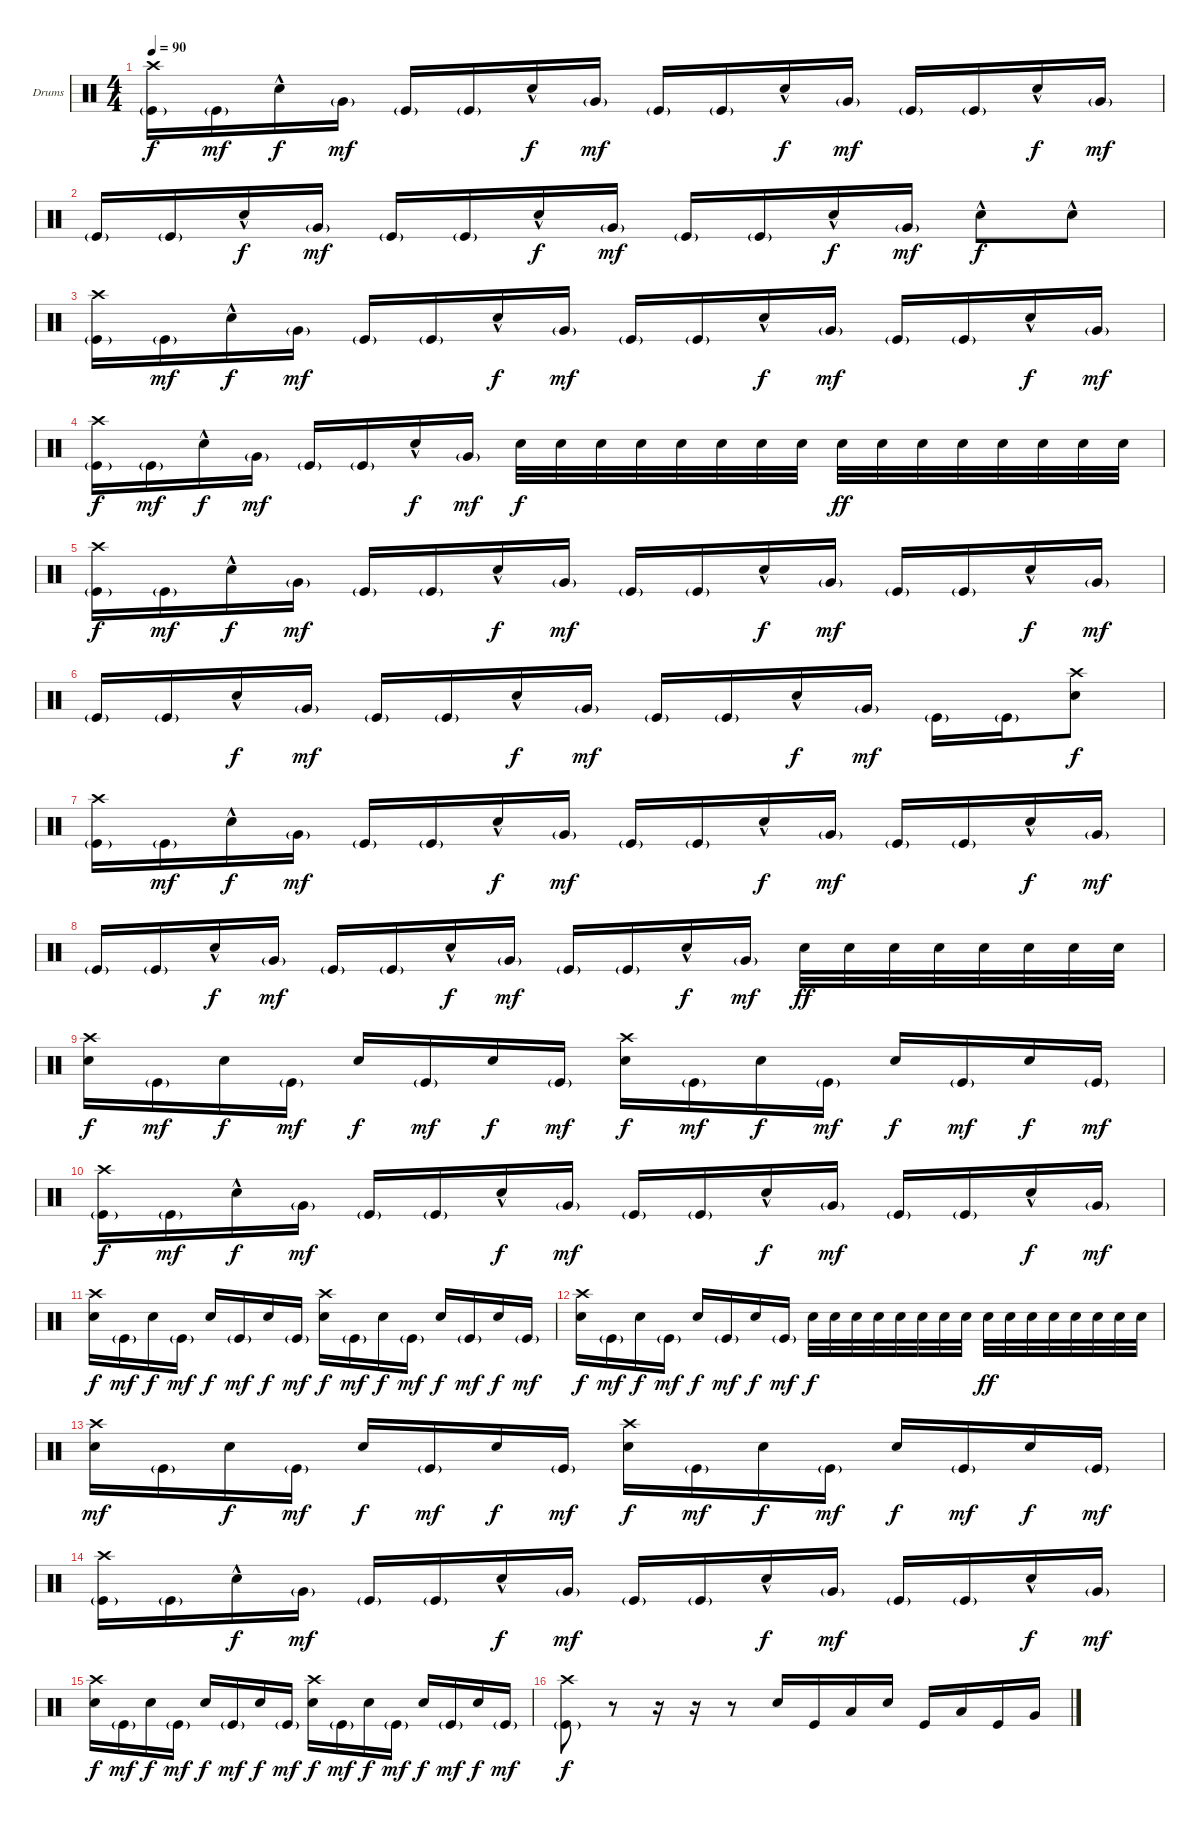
\defaultSystemsLayout 4
\bracketExtendMode groupsimilarinstruments
\firstSystemTrackNameOrientation horizontal
\otherSystemsTrackNameOrientation horizontal
\track ("Drums" "Drums") {instrument percussion}
\staff {score}
\articulation defaults
\ts (4 4)
\tempo 90
\clef neutral
\ks c
("Crash high (hit)" "Kick (hit)"{g}).16{dy f} "Kick (hit)"{g}.16{dy mf} "Snare (hit) 2"{hac}.16{dy f} "Very Low Tom (hit)"{g}.16{dy mf} "Kick (hit)"{g}.16 "Kick (hit)"{g}.16 "Snare (hit) 2"{hac}.16{dy f} "Very Low Tom (hit)"{g}.16{dy mf} "Kick (hit)"{g}.16 "Kick (hit)"{g}.16 "Snare (hit) 2"{hac}.16{dy f} "Very Low Tom (hit)"{g}.16{dy mf} "Kick (hit)"{g}.16 "Kick (hit)"{g}.16 "Snare (hit) 2"{hac}.16{dy f} "Very Low Tom (hit)"{g}.16{dy mf} |
"Kick (hit)"{g}.16 "Kick (hit)"{g}.16 "Snare (hit) 2"{hac}.16{dy f} "Very Low Tom (hit)"{g}.16{dy mf} "Kick (hit)"{g}.16 "Kick (hit)"{g}.16 "Snare (hit) 2"{hac}.16{dy f} "Very Low Tom (hit)"{g}.16{dy mf} "Kick (hit)"{g}.16 "Kick (hit)"{g}.16 "Snare (hit) 2"{hac}.16{dy f} "Very Low Tom (hit)"{g}.16{dy mf} "Snare (hit) 2"{hac}.8{dy f} "Snare (hit) 2"{hac}.8 |
("Crash high (hit)" "Kick (hit)"{g}).16 "Kick (hit)"{g}.16{dy mf} "Snare (hit) 2"{hac}.16{dy f} "Very Low Tom (hit)"{g}.16{dy mf} "Kick (hit)"{g}.16 "Kick (hit)"{g}.16 "Snare (hit) 2"{hac}.16{dy f} "Very Low Tom (hit)"{g}.16{dy mf} "Kick (hit)"{g}.16 "Kick (hit)"{g}.16 "Snare (hit) 2"{hac}.16{dy f} "Very Low Tom (hit)"{g}.16{dy mf} "Kick (hit)"{g}.16 "Kick (hit)"{g}.16 "Snare (hit) 2"{hac}.16{dy f} "Very Low Tom (hit)"{g}.16{dy mf} |
("Crash high (hit)" "Kick (hit)"{g}).16{dy f} "Kick (hit)"{g}.16{dy mf} "Snare (hit) 2"{hac}.16{dy f} "Very Low Tom (hit)"{g}.16{dy mf} "Kick (hit)"{g}.16 "Kick (hit)"{g}.16 "Snare (hit) 2"{hac}.16{dy f} "Very Low Tom (hit)"{g}.16{dy mf} "Snare (hit) 2".32{dy f} "Snare (hit) 2".32 "Snare (hit) 2".32 "Snare (hit) 2".32 "Snare (hit) 2".32 "Snare (hit) 2".32 "Snare (hit) 2".32 "Snare (hit) 2".32 "Snare (hit) 2".32{dy ff} "Snare (hit) 2".32 "Snare (hit) 2".32 "Snare (hit) 2".32 "Snare (hit) 2".32 "Snare (hit) 2".32 "Snare (hit) 2".32 "Snare (hit) 2".32 |
("Crash high (hit)" "Kick (hit)"{g}).16{dy f} "Kick (hit)"{g}.16{dy mf} "Snare (hit) 2"{hac}.16{dy f} "Very Low Tom (hit)"{g}.16{dy mf} "Kick (hit)"{g}.16 "Kick (hit)"{g}.16 "Snare (hit) 2"{hac}.16{dy f} "Very Low Tom (hit)"{g}.16{dy mf} "Kick (hit)"{g}.16 "Kick (hit)"{g}.16 "Snare (hit) 2"{hac}.16{dy f} "Very Low Tom (hit)"{g}.16{dy mf} "Kick (hit)"{g}.16 "Kick (hit)"{g}.16 "Snare (hit) 2"{hac}.16{dy f} "Very Low Tom (hit)"{g}.16{dy mf} |
"Kick (hit)"{g}.16 "Kick (hit)"{g}.16 "Snare (hit) 2"{hac}.16{dy f} "Very Low Tom (hit)"{g}.16{dy mf} "Kick (hit)"{g}.16 "Kick (hit)"{g}.16 "Snare (hit) 2"{hac}.16{dy f} "Very Low Tom (hit)"{g}.16{dy mf} "Kick (hit)"{g}.16 "Kick (hit)"{g}.16 "Snare (hit) 2"{hac}.16{dy f} "Very Low Tom (hit)"{g}.16{dy mf} "Kick (hit)"{g}.16 "Kick (hit)"{g}.16 ("Crash high (hit)" "Snare (hit) 2").8{dy f} |
("Crash high (hit)" "Kick (hit)"{g}).16 "Kick (hit)"{g}.16{dy mf} "Snare (hit) 2"{hac}.16{dy f} "Very Low Tom (hit)"{g}.16{dy mf} "Kick (hit)"{g}.16 "Kick (hit)"{g}.16 "Snare (hit) 2"{hac}.16{dy f} "Very Low Tom (hit)"{g}.16{dy mf} "Kick (hit)"{g}.16 "Kick (hit)"{g}.16 "Snare (hit) 2"{hac}.16{dy f} "Very Low Tom (hit)"{g}.16{dy mf} "Kick (hit)"{g}.16 "Kick (hit)"{g}.16 "Snare (hit) 2"{hac}.16{dy f} "Very Low Tom (hit)"{g}.16{dy mf} |
"Kick (hit)"{g}.16 "Kick (hit)"{g}.16 "Snare (hit) 2"{hac}.16{dy f} "Very Low Tom (hit)"{g}.16{dy mf} "Kick (hit)"{g}.16 "Kick (hit)"{g}.16 "Snare (hit) 2"{hac}.16{dy f} "Very Low Tom (hit)"{g}.16{dy mf} "Kick (hit)"{g}.16 "Kick (hit)"{g}.16 "Snare (hit) 2"{hac}.16{dy f} "Very Low Tom (hit)"{g}.16{dy mf} "Snare (hit) 2".32{dy ff} "Snare (hit) 2".32 "Snare (hit) 2".32 "Snare (hit) 2".32 "Snare (hit) 2".32 "Snare (hit) 2".32 "Snare (hit) 2".32 "Snare (hit) 2".32 |
("Crash high (hit)" "Snare (hit) 2").16{dy f} "Kick (hit)"{g}.16{dy mf} "Snare (hit) 2".16{dy f} "Kick (hit)"{g}.16{dy mf} "Snare (hit) 2".16{dy f} "Kick (hit)"{g}.16{dy mf} "Snare (hit) 2".16{dy f} "Kick (hit)"{g}.16{dy mf} ("Crash high (hit)" "Snare (hit) 2").16{dy f} "Kick (hit)"{g}.16{dy mf} "Snare (hit) 2".16{dy f} "Kick (hit)"{g}.16{dy mf} "Snare (hit) 2".16{dy f} "Kick (hit)"{g}.16{dy mf} "Snare (hit) 2".16{dy f} "Kick (hit)"{g}.16{dy mf} |
("Crash high (hit)" "Kick (hit)"{g}).16{dy f} "Kick (hit)"{g}.16{dy mf} "Snare (hit) 2"{hac}.16{dy f} "Very Low Tom (hit)"{g}.16{dy mf} "Kick (hit)"{g}.16 "Kick (hit)"{g}.16 "Snare (hit) 2"{hac}.16{dy f} "Very Low Tom (hit)"{g}.16{dy mf} "Kick (hit)"{g}.16 "Kick (hit)"{g}.16 "Snare (hit) 2"{hac}.16{dy f} "Very Low Tom (hit)"{g}.16{dy mf} "Kick (hit)"{g}.16 "Kick (hit)"{g}.16 "Snare (hit) 2"{hac}.16{dy f} "Very Low Tom (hit)"{g}.16{dy mf} |
("Crash high (hit)" "Snare (hit) 2").16{dy f} "Kick (hit)"{g}.16{dy mf} "Snare (hit) 2".16{dy f} "Kick (hit)"{g}.16{dy mf} "Snare (hit) 2".16{dy f} "Kick (hit)"{g}.16{dy mf} "Snare (hit) 2".16{dy f} "Kick (hit)"{g}.16{dy mf} ("Crash high (hit)" "Snare (hit) 2").16{dy f} "Kick (hit)"{g}.16{dy mf} "Snare (hit) 2".16{dy f} "Kick (hit)"{g}.16{dy mf} "Snare (hit) 2".16{dy f} "Kick (hit)"{g}.16{dy mf} "Snare (hit) 2".16{dy f} "Kick (hit)"{g}.16{dy mf} |
("Crash high (hit)" "Snare (hit) 2").16{dy f} "Kick (hit)"{g}.16{dy mf} "Snare (hit) 2".16{dy f} "Kick (hit)"{g}.16{dy mf} "Snare (hit) 2".16{dy f} "Kick (hit)"{g}.16{dy mf} "Snare (hit) 2".16{dy f} "Kick (hit)"{g}.16{dy mf} "Snare (hit) 2".32{dy f} "Snare (hit) 2".32 "Snare (hit) 2".32 "Snare (hit) 2".32 "Snare (hit) 2".32 "Snare (hit) 2".32 "Snare (hit) 2".32 "Snare (hit) 2".32 "Snare (hit) 2".32{dy ff} "Snare (hit) 2".32 "Snare (hit) 2".32 "Snare (hit) 2".32 "Snare (hit) 2".32 "Snare (hit) 2".32 "Snare (hit) 2".32 "Snare (hit) 2".32 |
("Crash high (hit)" "Snare (hit) 2").16{dy mf} "Kick (hit)"{g}.16 "Snare (hit) 2".16{dy f} "Kick (hit)"{g}.16{dy mf} "Snare (hit) 2".16{dy f} "Kick (hit)"{g}.16{dy mf} "Snare (hit) 2".16{dy f} "Kick (hit)"{g}.16{dy mf} ("Crash high (hit)" "Snare (hit) 2").16{dy f} "Kick (hit)"{g}.16{dy mf} "Snare (hit) 2".16{dy f} "Kick (hit)"{g}.16{dy mf} "Snare (hit) 2".16{dy f} "Kick (hit)"{g}.16{dy mf} "Snare (hit) 2".16{dy f} "Kick (hit)"{g}.16{dy mf} |
("Crash high (hit)" "Kick (hit)"{g}).16 "Kick (hit)"{g}.16 "Snare (hit) 2"{hac}.16{dy f} "Very Low Tom (hit)"{g}.16{dy mf} "Kick (hit)"{g}.16 "Kick (hit)"{g}.16 "Snare (hit) 2"{hac}.16{dy f} "Very Low Tom (hit)"{g}.16{dy mf} "Kick (hit)"{g}.16 "Kick (hit)"{g}.16 "Snare (hit) 2"{hac}.16{dy f} "Very Low Tom (hit)"{g}.16{dy mf} "Kick (hit)"{g}.16 "Kick (hit)"{g}.16 "Snare (hit) 2"{hac}.16{dy f} "Very Low Tom (hit)"{g}.16{dy mf} |
("Crash high (hit)" "Snare (hit) 2").16{dy f} "Kick (hit)"{g}.16{dy mf} "Snare (hit) 2".16{dy f} "Kick (hit)"{g}.16{dy mf} "Snare (hit) 2".16{dy f} "Kick (hit)"{g}.16{dy mf} "Snare (hit) 2".16{dy f} "Kick (hit)"{g}.16{dy mf} ("Crash high (hit)" "Snare (hit) 2").16{dy f} "Kick (hit)"{g}.16{dy mf} "Snare (hit) 2".16{dy f} "Kick (hit)"{g}.16{dy mf} "Snare (hit) 2".16{dy f} "Kick (hit)"{g}.16{dy mf} "Snare (hit) 2".16{dy f} "Kick (hit)"{g}.16{dy mf} |
("Crash high (hit)" "Kick (hit)"{g}).8{dy f} r.8 r.16 r.16 r.8 "Snare (hit) 2".16 "Kick (hit)".16 "Low Tom (hit)".16 "Snare (hit) 2".16 "Kick (hit)".16 "Low Tom (hit)".16 "Kick (hit)".16 "Very Low Tom (hit)".16
